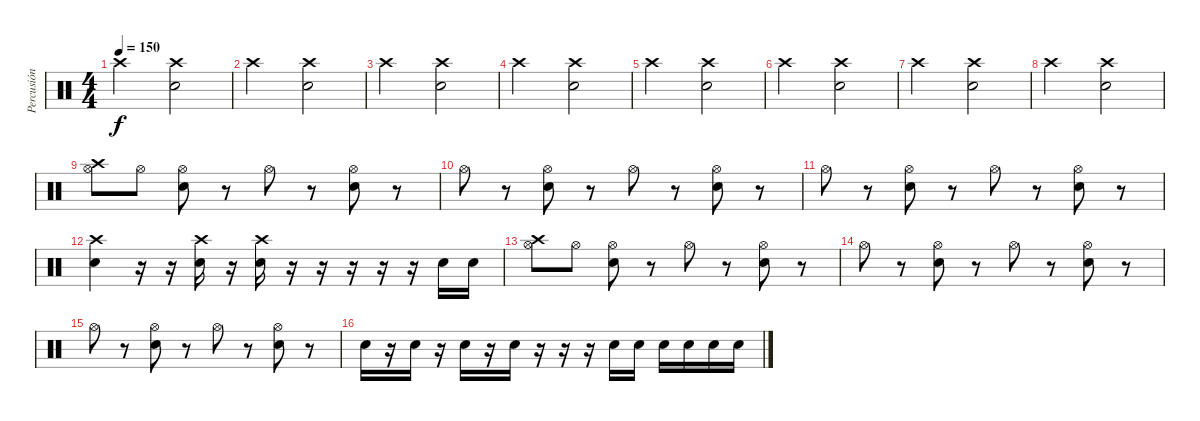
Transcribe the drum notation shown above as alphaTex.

\track ("Percusión" "Percusión") {instrument percussion}
\staff {score}
\articulation defaults
\ts (4 4)
\tempo 150
\clef neutral
\ks c "Crash high (hit)".2{dy f}
("Snare (hit) 2" "Crash high (hit)").2 |
"Crash high (hit)".2 ("Snare (hit) 2" "Crash high (hit)").2 |
"Crash high (hit)".2 ("Snare (hit) 2" "Crash high (hit)").2 |
"Crash high (hit)".2 ("Snare (hit) 2" "Crash high (hit)").2 |
"Crash high (hit)".2 ("Snare (hit) 2" "Crash high (hit)").2 |
"Crash high (hit)".2 ("Snare (hit) 2" "Crash high (hit)").2 |
"Crash high (hit)".2 ("Snare (hit) 2" "Crash high (hit)").2 |
"Crash high (hit)".2 ("Snare (hit) 2" "Crash high (hit)").2 |
("Crash high (hit)" "Hi-Hat (open)").8 "Hi-Hat (open)".8 ("Hi-Hat (open)" "Snare (hit) 2").8 r.8 "Hi-Hat (open)".8 r.8 ("Hi-Hat (open)" "Snare (hit) 2").8 r.8 |
"Hi-Hat (open)".8 r.8 ("Hi-Hat (open)" "Snare (hit) 2").8 r.8 "Hi-Hat (open)".8 r.8 ("Hi-Hat (open)" "Snare (hit) 2").8 r.8 |
"Hi-Hat (open)".8 r.8 ("Hi-Hat (open)" "Snare (hit) 2").8 r.8 "Hi-Hat (open)".8 r.8 ("Hi-Hat (open)" "Snare (hit) 2").8 r.8 |
("Crash high (hit)" "Snare (hit) 2").4 r.16 r.16 ("Crash high (hit)" "Snare (hit) 2").16 r.16 ("Crash high (hit)" "Snare (hit) 2").16 r.16 r.16 r.16 r.16 r.16 "Snare (hit) 2".16 "Snare (hit) 2".16 |
("Crash high (hit)" "Hi-Hat (open)").8 "Hi-Hat (open)".8 ("Hi-Hat (open)" "Snare (hit) 2").8 r.8 "Hi-Hat (open)".8 r.8 ("Hi-Hat (open)" "Snare (hit) 2").8 r.8 |
"Hi-Hat (open)".8 r.8 ("Hi-Hat (open)" "Snare (hit) 2").8 r.8 "Hi-Hat (open)".8 r.8 ("Hi-Hat (open)" "Snare (hit) 2").8 r.8 |
"Hi-Hat (open)".8 r.8 ("Hi-Hat (open)" "Snare (hit) 2").8 r.8 "Hi-Hat (open)".8 r.8 ("Hi-Hat (open)" "Snare (hit) 2").8 r.8 |
"Snare (hit) 2".16 r.16 "Snare (hit) 2".16 r.16 "Snare (hit) 2".16 r.16 "Snare (hit) 2".16 r.16 r.16 r.16 "Snare (hit) 2".16 "Snare (hit) 2".16 "Snare (hit) 2".16 "Snare (hit) 2".16 "Snare (hit) 2".16 "Snare (hit) 2".16
